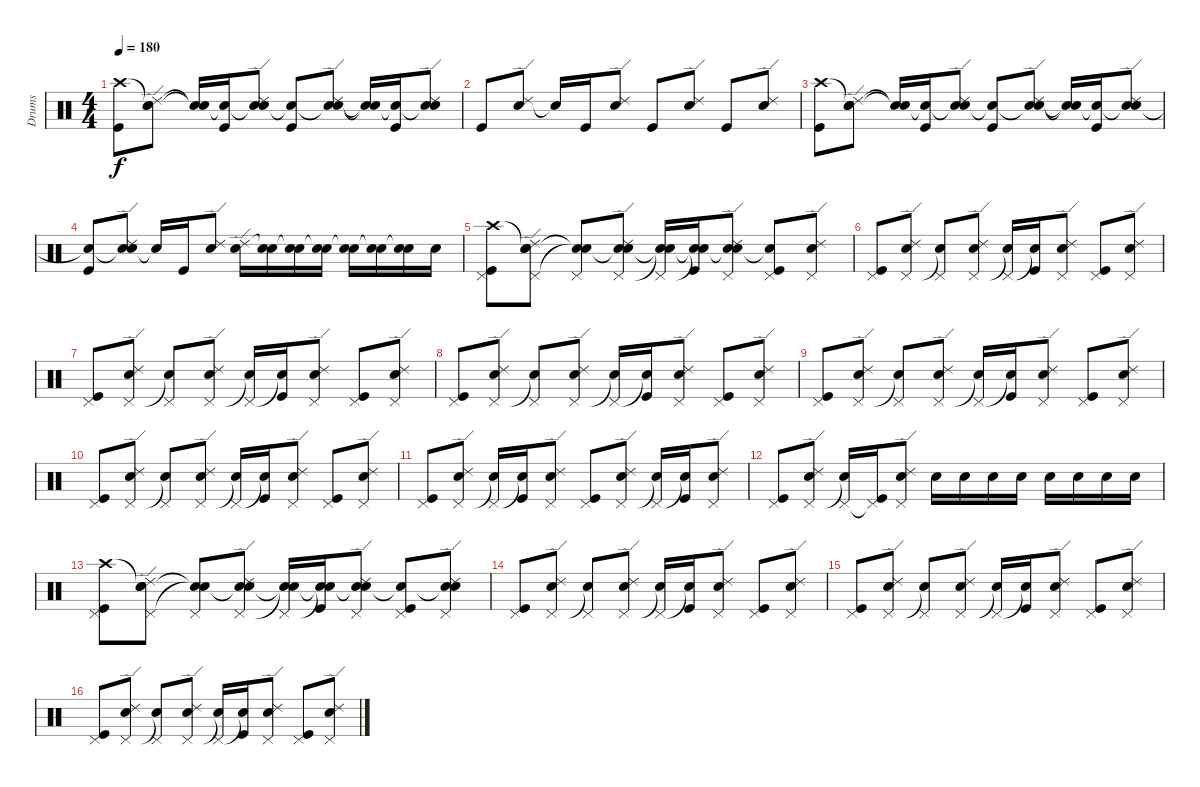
\track ("Drums" "Drums") {instrument percussion}
\staff {score}
\articulation defaults
\ts (4 4)
\tempo 180
\clef neutral
\ks c
("Crash high (hit)" "Kick (hit)").8{dy f} ("Snare (hit)"{t} "Ride (edge) 2" "Electric Snare (hit)").8 ("Snare (hit)"{t} "Snare (hit)"{t}).16 ("Snare (hit)"{t} "Kick (hit)").16 ("Snare (hit)"{t} "Ride (edge) 2" "Electric Snare (hit)").8 ("Snare (hit)"{t} "Kick (hit)").8 ("Snare (hit)"{t} "Ride (edge) 2" "Electric Snare (hit)").8 ("Snare (hit)"{t} "Snare (hit)"{t}).16 ("Snare (hit)"{t} "Kick (hit)").16 ("Snare (hit)"{t} "Ride (edge) 2" "Electric Snare (hit)").8 |
"Kick (hit)".8 ("Ride (edge) 2" "Electric Snare (hit)").8 "Snare (hit)"{t}.16 "Kick (hit)".16 ("Ride (edge) 2" "Electric Snare (hit)").8 "Kick (hit)".8 ("Ride (edge) 2" "Electric Snare (hit)").8 "Kick (hit)".8 ("Ride (edge) 2" "Electric Snare (hit)").8 |
("Crash high (hit)" "Kick (hit)").8 ("Snare (hit)"{t} "Ride (edge) 2" "Electric Snare (hit)").8 ("Snare (hit)"{t} "Snare (hit)"{t}).16 ("Snare (hit)"{t} "Kick (hit)").16 ("Snare (hit)"{t} "Ride (edge) 2" "Electric Snare (hit)").8 ("Snare (hit)"{t} "Kick (hit)").8 ("Snare (hit)"{t} "Ride (edge) 2" "Electric Snare (hit)").8 ("Snare (hit)"{t} "Snare (hit)"{t}).16 ("Snare (hit)"{t} "Kick (hit)").16 ("Snare (hit)"{t} "Ride (edge) 2" "Electric Snare (hit)").8 |
("Snare (hit)"{t} "Kick (hit)").8 ("Snare (hit)"{t} "Ride (edge) 2" "Electric Snare (hit)").8 "Snare (hit)"{t}.16 "Kick (hit)".16 ("Ride (edge) 2" "Electric Snare (hit)").8 ("Ride (edge) 2" "Electric Snare (hit)").16 ("Snare (hit)"{t} "Electric Snare (hit)").16 ("Snare (hit)"{t} "Electric Snare (hit)").16 ("Snare (hit)"{t} "Electric Snare (hit)").16 ("Snare (hit)"{t} "Electric Snare (hit)").16 ("Snare (hit)"{t} "Electric Snare (hit)").16 ("Snare (hit)"{t} "Electric Snare (hit)").16 "Electric Snare (hit)".16 |
("Crash high (hit)" "Pedal Hi-Hat (hit)" "Kick (hit)").8 ("Snare (hit)"{t} "Ride (edge) 2" "Pedal Hi-Hat (hit)" "Electric Snare (hit)").8 ("Snare (hit)"{t} "Pedal Hi-Hat (hit)" "Snare (hit)"{t}).8 ("Snare (hit)"{t} "Ride (edge) 2" "Pedal Hi-Hat (hit)" "Electric Snare (hit)").8 ("Snare (hit)"{t} "Pedal Hi-Hat (hit)" "Snare (hit)"{t}).16 ("Snare (hit)"{t} "Snare (hit)"{t} "Kick (hit)").16 ("Snare (hit)"{t} "Ride (edge) 2" "Pedal Hi-Hat (hit)" "Electric Snare (hit)").8 ("Snare (hit)"{t} "Pedal Hi-Hat (hit)" "Kick (hit)").8 ("Ride (edge) 2" "Pedal Hi-Hat (hit)" "Electric Snare (hit)").8 |
("Pedal Hi-Hat (hit)" "Kick (hit)").8 ("Ride (edge) 2" "Pedal Hi-Hat (hit)" "Electric Snare (hit)").8 ("Pedal Hi-Hat (hit)" "Snare (hit)"{t}).8 ("Ride (edge) 2" "Pedal Hi-Hat (hit)" "Electric Snare (hit)").8 ("Pedal Hi-Hat (hit)" "Snare (hit)"{t}).16 ("Snare (hit)"{t} "Kick (hit)").16 ("Ride (edge) 2" "Pedal Hi-Hat (hit)" "Electric Snare (hit)").8 ("Pedal Hi-Hat (hit)" "Kick (hit)").8 ("Ride (edge) 2" "Pedal Hi-Hat (hit)" "Electric Snare (hit)").8 |
("Pedal Hi-Hat (hit)" "Kick (hit)").8 ("Ride (edge) 2" "Pedal Hi-Hat (hit)" "Electric Snare (hit)").8 ("Pedal Hi-Hat (hit)" "Snare (hit)"{t}).8 ("Ride (edge) 2" "Pedal Hi-Hat (hit)" "Electric Snare (hit)").8 ("Pedal Hi-Hat (hit)" "Snare (hit)"{t}).16 ("Snare (hit)"{t} "Kick (hit)").16 ("Ride (edge) 2" "Pedal Hi-Hat (hit)" "Electric Snare (hit)").8 ("Pedal Hi-Hat (hit)" "Kick (hit)").8 ("Ride (edge) 2" "Pedal Hi-Hat (hit)" "Electric Snare (hit)").8 |
("Pedal Hi-Hat (hit)" "Kick (hit)").8 ("Ride (edge) 2" "Pedal Hi-Hat (hit)" "Electric Snare (hit)").8 ("Pedal Hi-Hat (hit)" "Snare (hit)"{t}).8 ("Ride (edge) 2" "Pedal Hi-Hat (hit)" "Electric Snare (hit)").8 ("Pedal Hi-Hat (hit)" "Snare (hit)"{t}).16 ("Snare (hit)"{t} "Kick (hit)").16 ("Ride (edge) 2" "Pedal Hi-Hat (hit)" "Electric Snare (hit)").8 ("Pedal Hi-Hat (hit)" "Kick (hit)").8 ("Ride (edge) 2" "Pedal Hi-Hat (hit)" "Electric Snare (hit)").8 |
("Pedal Hi-Hat (hit)" "Kick (hit)").8 ("Ride (edge) 2" "Pedal Hi-Hat (hit)" "Electric Snare (hit)").8 ("Pedal Hi-Hat (hit)" "Snare (hit)"{t}).8 ("Ride (edge) 2" "Pedal Hi-Hat (hit)" "Electric Snare (hit)").8 ("Pedal Hi-Hat (hit)" "Snare (hit)"{t}).16 ("Snare (hit)"{t} "Kick (hit)").16 ("Ride (edge) 2" "Pedal Hi-Hat (hit)" "Electric Snare (hit)").8 ("Pedal Hi-Hat (hit)" "Kick (hit)").8 ("Ride (edge) 2" "Pedal Hi-Hat (hit)" "Electric Snare (hit)").8 |
("Pedal Hi-Hat (hit)" "Kick (hit)").8 ("Ride (edge) 2" "Pedal Hi-Hat (hit)" "Electric Snare (hit)").8 ("Pedal Hi-Hat (hit)" "Snare (hit)"{t}).8 ("Ride (edge) 2" "Pedal Hi-Hat (hit)" "Electric Snare (hit)").8 ("Pedal Hi-Hat (hit)" "Snare (hit)"{t}).16 ("Snare (hit)"{t} "Kick (hit)").16 ("Ride (edge) 2" "Pedal Hi-Hat (hit)" "Electric Snare (hit)").8 ("Pedal Hi-Hat (hit)" "Kick (hit)").8 ("Ride (edge) 2" "Pedal Hi-Hat (hit)" "Electric Snare (hit)").8 |
("Pedal Hi-Hat (hit)" "Kick (hit)").8 ("Ride (edge) 2" "Pedal Hi-Hat (hit)" "Electric Snare (hit)").8 ("Pedal Hi-Hat (hit)" "Snare (hit)"{t}).16 ("Snare (hit)"{t} "Kick (hit)").16 ("Ride (edge) 2" "Pedal Hi-Hat (hit)" "Electric Snare (hit)").8 ("Pedal Hi-Hat (hit)" "Kick (hit)").8 ("Ride (edge) 2" "Pedal Hi-Hat (hit)" "Electric Snare (hit)").8 ("Pedal Hi-Hat (hit)" "Snare (hit)"{t}).16 ("Snare (hit)"{t} "Kick (hit)").16 ("Ride (edge) 2" "Pedal Hi-Hat (hit)" "Electric Snare (hit)").8 |
("Pedal Hi-Hat (hit)" "Kick (hit)").8 ("Ride (edge) 2" "Pedal Hi-Hat (hit)" "Electric Snare (hit)").8 ("Pedal Hi-Hat (hit)" "Snare (hit)"{t}).16 ("Pedal Hi-Hat (hit)"{t} "Kick (hit)").16 ("Ride (edge) 2" "Pedal Hi-Hat (hit)" "Electric Snare (hit)").8 "Electric Snare (hit)".16 "Electric Snare (hit)".16 "Electric Snare (hit)".16 "Electric Snare (hit)".16 "Electric Snare (hit)".16 "Electric Snare (hit)".16 "Electric Snare (hit)".16 "Electric Snare (hit)".16 |
("Crash high (hit)" "Pedal Hi-Hat (hit)" "Kick (hit)").8 ("Snare (hit)"{t} "Ride (edge) 2" "Pedal Hi-Hat (hit)" "Electric Snare (hit)").8 ("Snare (hit)"{t} "Pedal Hi-Hat (hit)" "Snare (hit)"{t}).8 ("Snare (hit)"{t} "Ride (edge) 2" "Pedal Hi-Hat (hit)" "Electric Snare (hit)").8 ("Snare (hit)"{t} "Pedal Hi-Hat (hit)" "Snare (hit)"{t}).16 ("Snare (hit)"{t} "Snare (hit)"{t} "Kick (hit)").16 ("Snare (hit)"{t} "Ride (edge) 2" "Pedal Hi-Hat (hit)" "Electric Snare (hit)").8 ("Snare (hit)"{t} "Pedal Hi-Hat (hit)" "Kick (hit)").8 ("Snare (hit)"{t} "Ride (edge) 2" "Pedal Hi-Hat (hit)" "Electric Snare (hit)").8 |
("Pedal Hi-Hat (hit)" "Kick (hit)").8 ("Ride (edge) 2" "Pedal Hi-Hat (hit)" "Electric Snare (hit)").8 ("Pedal Hi-Hat (hit)" "Snare (hit)"{t}).8 ("Ride (edge) 2" "Pedal Hi-Hat (hit)" "Electric Snare (hit)").8 ("Pedal Hi-Hat (hit)" "Snare (hit)"{t}).16 ("Snare (hit)"{t} "Kick (hit)").16 ("Ride (edge) 2" "Pedal Hi-Hat (hit)" "Electric Snare (hit)").8 ("Pedal Hi-Hat (hit)" "Kick (hit)").8 ("Ride (edge) 2" "Pedal Hi-Hat (hit)" "Electric Snare (hit)").8 |
("Pedal Hi-Hat (hit)" "Kick (hit)").8 ("Ride (edge) 2" "Pedal Hi-Hat (hit)" "Electric Snare (hit)").8 ("Pedal Hi-Hat (hit)" "Snare (hit)"{t}).8 ("Ride (edge) 2" "Pedal Hi-Hat (hit)" "Electric Snare (hit)").8 ("Pedal Hi-Hat (hit)" "Snare (hit)"{t}).16 ("Snare (hit)"{t} "Kick (hit)").16 ("Ride (edge) 2" "Pedal Hi-Hat (hit)" "Electric Snare (hit)").8 ("Pedal Hi-Hat (hit)" "Kick (hit)").8 ("Ride (edge) 2" "Pedal Hi-Hat (hit)" "Electric Snare (hit)").8 |
("Pedal Hi-Hat (hit)" "Kick (hit)").8 ("Ride (edge) 2" "Pedal Hi-Hat (hit)" "Electric Snare (hit)").8 ("Pedal Hi-Hat (hit)" "Snare (hit)"{t}).8 ("Ride (edge) 2" "Pedal Hi-Hat (hit)" "Electric Snare (hit)").8 ("Pedal Hi-Hat (hit)" "Snare (hit)"{t}).16 ("Snare (hit)"{t} "Kick (hit)").16 ("Ride (edge) 2" "Pedal Hi-Hat (hit)" "Electric Snare (hit)").8 ("Pedal Hi-Hat (hit)" "Kick (hit)").8 ("Ride (edge) 2" "Pedal Hi-Hat (hit)" "Electric Snare (hit)").8
